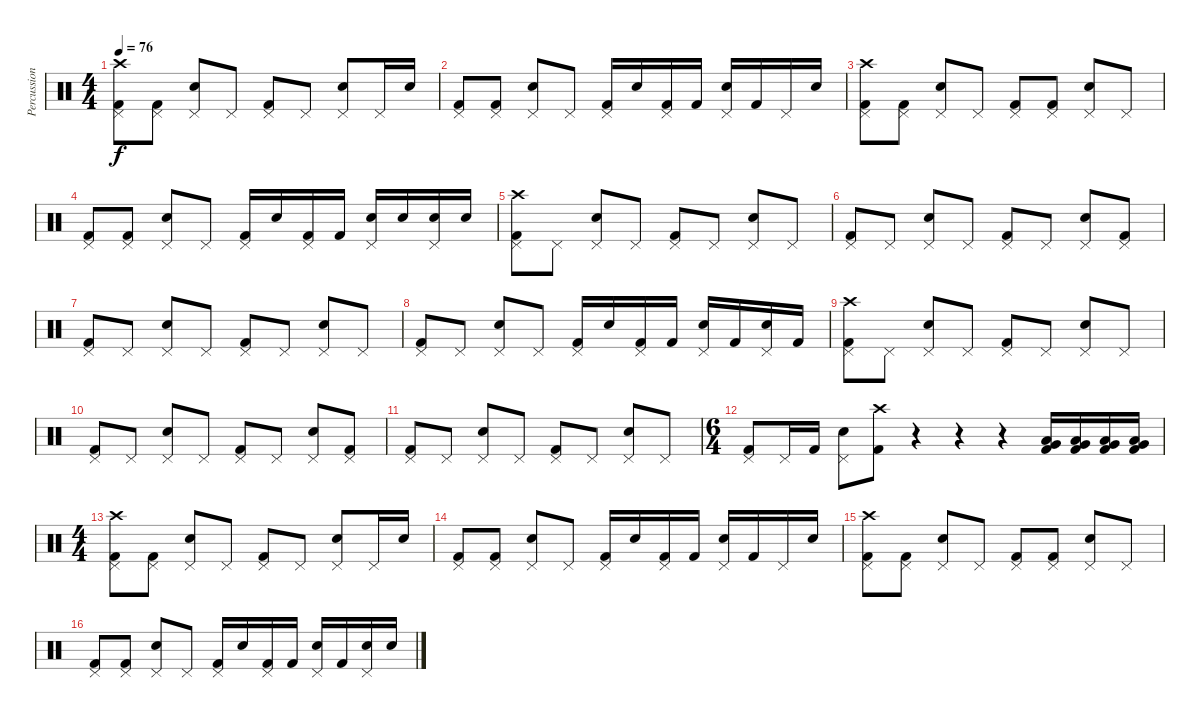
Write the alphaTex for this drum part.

\track ("Percussion" "Percussion") {instrument percussion}
\staff {score}
\articulation defaults
\ts (4 4)
\tempo 76
\clef neutral
\ks c
("Crash high (hit)" "Pedal Hi-Hat (hit)" "Kick (hit) 2").8{dy f} ("Pedal Hi-Hat (hit)" "Kick (hit) 2").8 ("Pedal Hi-Hat (hit)" "Snare (hit) 2").8 "Pedal Hi-Hat (hit)".8 ("Pedal Hi-Hat (hit)" "Kick (hit) 2").8 "Pedal Hi-Hat (hit)".8 ("Pedal Hi-Hat (hit)" "Snare (hit) 2").8 "Pedal Hi-Hat (hit)".16 "Snare (hit) 2".16 |
("Pedal Hi-Hat (hit)" "Kick (hit) 2").8 ("Pedal Hi-Hat (hit)" "Kick (hit) 2").8 ("Pedal Hi-Hat (hit)" "Snare (hit) 2").8 "Pedal Hi-Hat (hit)".8 ("Pedal Hi-Hat (hit)" "Kick (hit) 2").16 "Snare (hit) 2".16 ("Pedal Hi-Hat (hit)" "Kick (hit) 2").16 "Kick (hit) 2".16 ("Pedal Hi-Hat (hit)" "Snare (hit) 2").16 "Kick (hit) 2".16 "Pedal Hi-Hat (hit)".16 "Snare (hit) 2".16 |
("Crash high (hit)" "Pedal Hi-Hat (hit)" "Kick (hit) 2").8 ("Pedal Hi-Hat (hit)" "Kick (hit) 2").8 ("Pedal Hi-Hat (hit)" "Snare (hit) 2").8 "Pedal Hi-Hat (hit)".8 ("Pedal Hi-Hat (hit)" "Kick (hit) 2").8 ("Pedal Hi-Hat (hit)" "Kick (hit) 2").8 ("Pedal Hi-Hat (hit)" "Snare (hit) 2").8 "Pedal Hi-Hat (hit)".8 |
("Pedal Hi-Hat (hit)" "Kick (hit) 2").8 ("Pedal Hi-Hat (hit)" "Kick (hit) 2").8 ("Pedal Hi-Hat (hit)" "Snare (hit) 2").8 "Pedal Hi-Hat (hit)".8 ("Pedal Hi-Hat (hit)" "Kick (hit) 2").16 "Snare (hit) 2".16 ("Pedal Hi-Hat (hit)" "Kick (hit) 2").16 "Kick (hit) 2".16 ("Pedal Hi-Hat (hit)" "Snare (hit) 2").16 "Snare (hit) 2".16 ("Pedal Hi-Hat (hit)" "Snare (hit) 2").16 "Snare (hit) 2".16 |
("Crash high (hit)" "Pedal Hi-Hat (hit)" "Kick (hit) 2").8 "Pedal Hi-Hat (hit)".8 ("Pedal Hi-Hat (hit)" "Snare (hit) 2").8 "Pedal Hi-Hat (hit)".8 ("Pedal Hi-Hat (hit)" "Kick (hit) 2").8 "Pedal Hi-Hat (hit)".8 ("Pedal Hi-Hat (hit)" "Snare (hit) 2").8 "Pedal Hi-Hat (hit)".8 |
("Pedal Hi-Hat (hit)" "Kick (hit) 2").8 "Pedal Hi-Hat (hit)".8 ("Pedal Hi-Hat (hit)" "Snare (hit) 2").8 "Pedal Hi-Hat (hit)".8 ("Pedal Hi-Hat (hit)" "Kick (hit) 2").8 "Pedal Hi-Hat (hit)".8 ("Pedal Hi-Hat (hit)" "Snare (hit) 2").8 ("Pedal Hi-Hat (hit)" "Kick (hit) 2").8 |
("Pedal Hi-Hat (hit)" "Kick (hit) 2").8 "Pedal Hi-Hat (hit)".8 ("Pedal Hi-Hat (hit)" "Snare (hit) 2").8 "Pedal Hi-Hat (hit)".8 ("Pedal Hi-Hat (hit)" "Kick (hit) 2").8 "Pedal Hi-Hat (hit)".8 ("Pedal Hi-Hat (hit)" "Snare (hit) 2").8 "Pedal Hi-Hat (hit)".8 |
("Pedal Hi-Hat (hit)" "Kick (hit) 2").8 "Pedal Hi-Hat (hit)".8 ("Pedal Hi-Hat (hit)" "Snare (hit) 2").8 "Pedal Hi-Hat (hit)".8 ("Pedal Hi-Hat (hit)" "Kick (hit) 2").16 "Snare (hit) 2".16 ("Pedal Hi-Hat (hit)" "Kick (hit) 2").16 "Kick (hit) 2".16 ("Pedal Hi-Hat (hit)" "Snare (hit) 2").16 "Kick (hit) 2".16 ("Pedal Hi-Hat (hit)" "Snare (hit) 2").16 "Kick (hit) 2".16 |
("Crash high (hit)" "Pedal Hi-Hat (hit)" "Kick (hit) 2").8 "Pedal Hi-Hat (hit)".8 ("Pedal Hi-Hat (hit)" "Snare (hit) 2").8 "Pedal Hi-Hat (hit)".8 ("Pedal Hi-Hat (hit)" "Kick (hit) 2").8 "Pedal Hi-Hat (hit)".8 ("Pedal Hi-Hat (hit)" "Snare (hit) 2").8 "Pedal Hi-Hat (hit)".8 |
("Pedal Hi-Hat (hit)" "Kick (hit) 2").8 "Pedal Hi-Hat (hit)".8 ("Pedal Hi-Hat (hit)" "Snare (hit) 2").8 "Pedal Hi-Hat (hit)".8 ("Pedal Hi-Hat (hit)" "Kick (hit) 2").8 "Pedal Hi-Hat (hit)".8 ("Pedal Hi-Hat (hit)" "Snare (hit) 2").8 ("Pedal Hi-Hat (hit)" "Kick (hit) 2").8 |
("Pedal Hi-Hat (hit)" "Kick (hit) 2").8 "Pedal Hi-Hat (hit)".8 ("Pedal Hi-Hat (hit)" "Snare (hit) 2").8 "Pedal Hi-Hat (hit)".8 ("Pedal Hi-Hat (hit)" "Kick (hit) 2").8 "Pedal Hi-Hat (hit)".8 ("Pedal Hi-Hat (hit)" "Snare (hit) 2").8 "Pedal Hi-Hat (hit)".8 |
\ts (6 4)
("Pedal Hi-Hat (hit)" "Kick (hit) 2").8 "Pedal Hi-Hat (hit)".16 "Kick (hit) 2".16 ("Pedal Hi-Hat (hit)" "Snare (hit) 2").8 ("Crash high (hit)" "Kick (hit) 2").8 r.4 r.4 r.4 ("Low Tom (hit)" "Very Low Tom (hit)" "Kick (hit) 2").16 ("Low Tom (hit)" "Very Low Tom (hit)" "Kick (hit) 2").16 ("Low Tom (hit)" "Very Low Tom (hit)" "Kick (hit) 2").16 ("Low Tom (hit)" "Very Low Tom (hit)" "Kick (hit) 2").16 |
\ts (4 4)
("Crash high (hit)" "Pedal Hi-Hat (hit)" "Kick (hit) 2").8 ("Pedal Hi-Hat (hit)" "Kick (hit) 2").8 ("Pedal Hi-Hat (hit)" "Snare (hit) 2").8 "Pedal Hi-Hat (hit)".8 ("Pedal Hi-Hat (hit)" "Kick (hit) 2").8 "Pedal Hi-Hat (hit)".8 ("Pedal Hi-Hat (hit)" "Snare (hit) 2").8 "Pedal Hi-Hat (hit)".16 "Snare (hit) 2".16 |
("Pedal Hi-Hat (hit)" "Kick (hit) 2").8 ("Pedal Hi-Hat (hit)" "Kick (hit) 2").8 ("Pedal Hi-Hat (hit)" "Snare (hit) 2").8 "Pedal Hi-Hat (hit)".8 ("Pedal Hi-Hat (hit)" "Kick (hit) 2").16 "Snare (hit) 2".16 ("Pedal Hi-Hat (hit)" "Kick (hit) 2").16 "Kick (hit) 2".16 ("Pedal Hi-Hat (hit)" "Snare (hit) 2").16 "Kick (hit) 2".16 "Pedal Hi-Hat (hit)".16 "Snare (hit) 2".16 |
("Crash high (hit)" "Pedal Hi-Hat (hit)" "Kick (hit) 2").8 ("Pedal Hi-Hat (hit)" "Kick (hit) 2").8 ("Pedal Hi-Hat (hit)" "Snare (hit) 2").8 "Pedal Hi-Hat (hit)".8 ("Pedal Hi-Hat (hit)" "Kick (hit) 2").8 ("Pedal Hi-Hat (hit)" "Kick (hit) 2").8 ("Pedal Hi-Hat (hit)" "Snare (hit) 2").8 "Pedal Hi-Hat (hit)".8 |
("Pedal Hi-Hat (hit)" "Kick (hit) 2").8 ("Pedal Hi-Hat (hit)" "Kick (hit) 2").8 ("Pedal Hi-Hat (hit)" "Snare (hit) 2").8 "Pedal Hi-Hat (hit)".8 ("Pedal Hi-Hat (hit)" "Kick (hit) 2").16 "Snare (hit) 2".16 ("Pedal Hi-Hat (hit)" "Kick (hit) 2").16 "Kick (hit) 2".16 ("Pedal Hi-Hat (hit)" "Snare (hit) 2").16 "Kick (hit) 2".16 ("Pedal Hi-Hat (hit)" "Snare (hit) 2").16 "Snare (hit) 2".16
